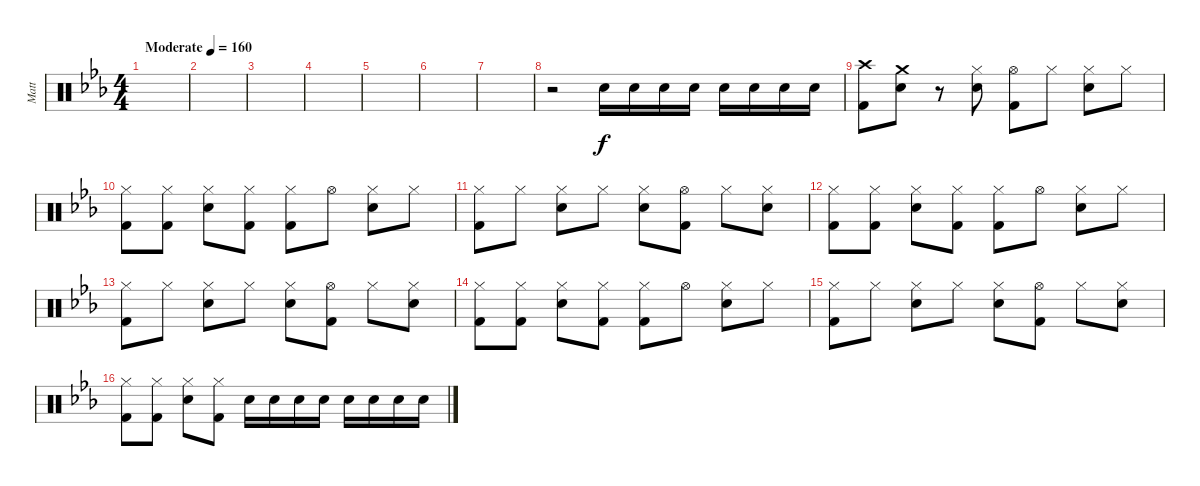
\track ("Matt" "Matt") {instrument percussion}
\staff {score}
\articulation defaults
\ts (4 4)
\tempo (160 "Moderate")
\clef neutral
\ks cminor
|
|
|
|
|
|
|
r.2 "Electric Snare (hit)".16 "Electric Snare (hit)".16 "Electric Snare (hit)".16 "Electric Snare (hit)".16 "Electric Snare (hit)".16 "Electric Snare (hit)".16 "Electric Snare (hit)".16 "Electric Snare (hit)".16 |
("Crash high (hit)" "Kick (hit) 2").8 ("Crash medium (hit)" "Electric Snare (hit)").8 r.8 ("Hi-Hat (closed)" "Electric Snare (hit)").8 ("Hi-Hat (open)" "Kick (hit) 2").8 "Hi-Hat (closed)".8 ("Hi-Hat (closed)" "Electric Snare (hit)").8 "Hi-Hat (closed)".8 |
("Hi-Hat (closed)" "Kick (hit) 2").8 ("Hi-Hat (closed)" "Kick (hit) 2").8 ("Hi-Hat (closed)" "Electric Snare (hit)").8 ("Hi-Hat (closed)" "Kick (hit) 2").8 ("Hi-Hat (closed)" "Kick (hit) 2").8 "Hi-Hat (open)".8 ("Hi-Hat (closed)" "Electric Snare (hit)").8 "Hi-Hat (closed)".8 |
("Hi-Hat (closed)" "Kick (hit) 2").8 "Hi-Hat (closed)".8 ("Hi-Hat (closed)" "Electric Snare (hit)").8 "Hi-Hat (closed)".8 ("Hi-Hat (closed)" "Electric Snare (hit)").8 ("Hi-Hat (open)" "Kick (hit) 2").8 "Hi-Hat (closed)".8 ("Hi-Hat (closed)" "Electric Snare (hit)").8 |
("Hi-Hat (closed)" "Kick (hit) 2").8 ("Hi-Hat (closed)" "Kick (hit) 2").8 ("Hi-Hat (closed)" "Electric Snare (hit)").8 ("Hi-Hat (closed)" "Kick (hit) 2").8 ("Hi-Hat (closed)" "Kick (hit) 2").8 "Hi-Hat (open)".8 ("Hi-Hat (closed)" "Electric Snare (hit)").8 "Hi-Hat (closed)".8 |
("Hi-Hat (closed)" "Kick (hit) 2").8 "Hi-Hat (closed)".8 ("Hi-Hat (closed)" "Electric Snare (hit)").8 "Hi-Hat (closed)".8 ("Hi-Hat (closed)" "Electric Snare (hit)").8 ("Hi-Hat (open)" "Kick (hit) 2").8 "Hi-Hat (closed)".8 ("Hi-Hat (closed)" "Electric Snare (hit)").8 |
("Hi-Hat (closed)" "Kick (hit) 2").8 ("Hi-Hat (closed)" "Kick (hit) 2").8 ("Hi-Hat (closed)" "Electric Snare (hit)").8 ("Hi-Hat (closed)" "Kick (hit) 2").8 ("Hi-Hat (closed)" "Kick (hit) 2").8 "Hi-Hat (open)".8 ("Hi-Hat (closed)" "Electric Snare (hit)").8 "Hi-Hat (closed)".8 |
("Hi-Hat (closed)" "Kick (hit) 2").8 "Hi-Hat (closed)".8 ("Hi-Hat (closed)" "Electric Snare (hit)").8 "Hi-Hat (closed)".8 ("Hi-Hat (closed)" "Electric Snare (hit)").8 ("Hi-Hat (open)" "Kick (hit) 2").8 "Hi-Hat (closed)".8 ("Hi-Hat (closed)" "Electric Snare (hit)").8 |
("Hi-Hat (closed)" "Kick (hit) 2").8 ("Hi-Hat (closed)" "Kick (hit) 2").8 ("Hi-Hat (closed)" "Electric Snare (hit)").8 ("Hi-Hat (closed)" "Kick (hit) 2").8 "Electric Snare (hit)".16 "Electric Snare (hit)".16 "Electric Snare (hit)".16 "Electric Snare (hit)".16 "Electric Snare (hit)".16 "Electric Snare (hit)".16 "Electric Snare (hit)".16 "Electric Snare (hit)".16
